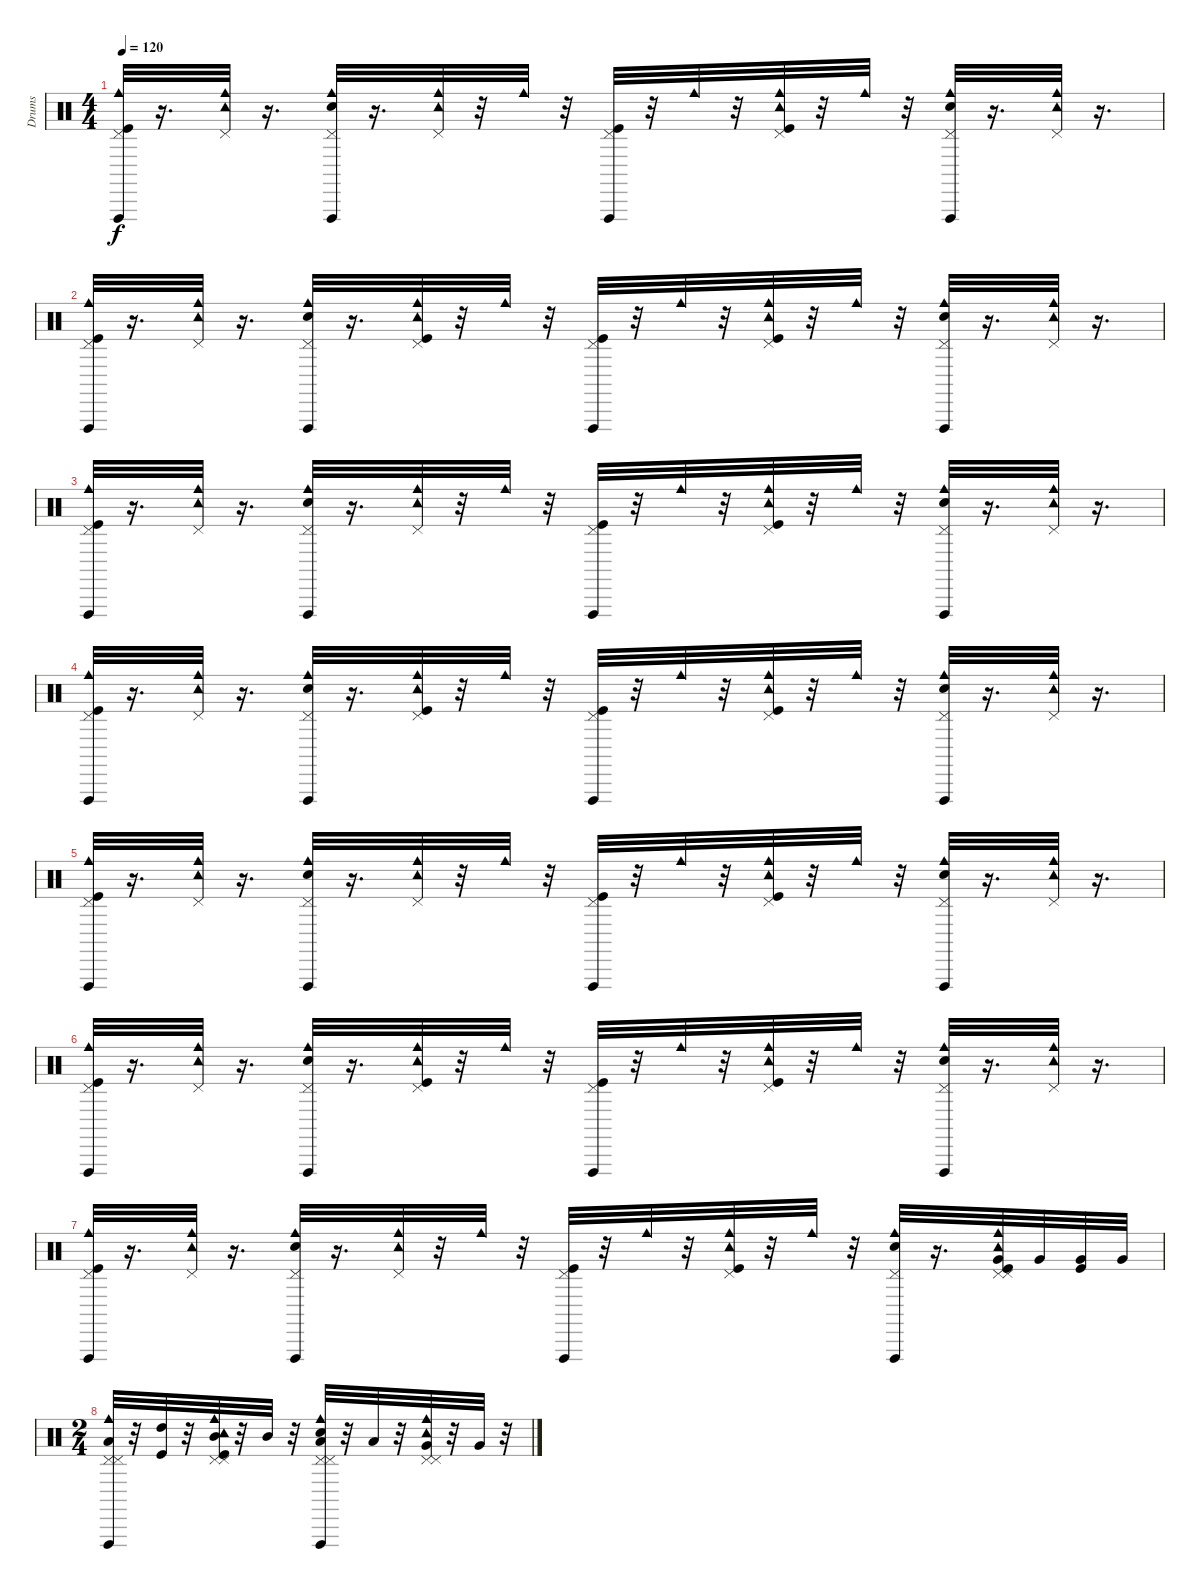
\track ("Drums" "Drums") {instrument percussion}
\staff {score}
\articulation defaults
\ts (4 4)
\tempo 120
\clef neutral
\ks c
("Kick (hit)" "Vibraslap (hit)" "Cowbell medium (hit)" "Pedal Hi-Hat (hit)").32{dy f} r.16{d} ("Tambourine (hit)" "Pedal Hi-Hat (hit)" "Cowbell medium (hit)").32 r.16{d} ("Snare (hit) 2" "Pedal Hi-Hat (hit)" "Vibraslap (hit)" "Cowbell medium (hit)").32 r.16{d} ("Pedal Hi-Hat (hit)" "Tambourine (hit)" "Cowbell medium (hit)").32 r.32 "Cowbell medium (hit)".32 r.32 ("Kick (hit)" "Pedal Hi-Hat (hit)" "Vibraslap (hit)").32 r.32 "Cowbell medium (hit)".32 r.32 ("Kick (hit)" "Cowbell medium (hit)" "Tambourine (hit)" "Pedal Hi-Hat (hit)").32 r.32 "Cowbell medium (hit)".32 r.32 ("Snare (hit) 2" "Vibraslap (hit)" "Cowbell medium (hit)" "Pedal Hi-Hat (hit)").32 r.16{d} ("Pedal Hi-Hat (hit)" "Tambourine (hit)" "Cowbell medium (hit)").32 r.16{d} |
("Kick (hit)" "Pedal Hi-Hat (hit)" "Vibraslap (hit)" "Cowbell medium (hit)").32 r.16{d} ("Cowbell medium (hit)" "Pedal Hi-Hat (hit)" "Tambourine (hit)").32 r.16{d} ("Snare (hit) 2" "Pedal Hi-Hat (hit)" "Cowbell medium (hit)" "Vibraslap (hit)").32 r.16{d} ("Kick (hit)" "Cowbell medium (hit)" "Pedal Hi-Hat (hit)" "Tambourine (hit)").32 r.32 "Cowbell medium (hit)".32 r.32 ("Kick (hit)" "Vibraslap (hit)" "Pedal Hi-Hat (hit)").32 r.32 "Cowbell medium (hit)".32 r.32 ("Kick (hit)" "Pedal Hi-Hat (hit)" "Tambourine (hit)" "Cowbell medium (hit)").32 r.32 "Cowbell medium (hit)".32 r.32 ("Snare (hit) 2" "Pedal Hi-Hat (hit)" "Cowbell medium (hit)" "Vibraslap (hit)").32 r.16{d} ("Pedal Hi-Hat (hit)" "Cowbell medium (hit)" "Tambourine (hit)").32 r.16{d} |
("Kick (hit)" "Vibraslap (hit)" "Cowbell medium (hit)" "Pedal Hi-Hat (hit)").32 r.16{d} ("Tambourine (hit)" "Pedal Hi-Hat (hit)" "Cowbell medium (hit)").32 r.16{d} ("Snare (hit) 2" "Pedal Hi-Hat (hit)" "Vibraslap (hit)" "Cowbell medium (hit)").32 r.16{d} ("Pedal Hi-Hat (hit)" "Tambourine (hit)" "Cowbell medium (hit)").32 r.32 "Cowbell medium (hit)".32 r.32 ("Kick (hit)" "Pedal Hi-Hat (hit)" "Vibraslap (hit)").32 r.32 "Cowbell medium (hit)".32 r.32 ("Kick (hit)" "Cowbell medium (hit)" "Tambourine (hit)" "Pedal Hi-Hat (hit)").32 r.32 "Cowbell medium (hit)".32 r.32 ("Snare (hit) 2" "Vibraslap (hit)" "Cowbell medium (hit)" "Pedal Hi-Hat (hit)").32 r.16{d} ("Pedal Hi-Hat (hit)" "Tambourine (hit)" "Cowbell medium (hit)").32 r.16{d} |
("Kick (hit)" "Pedal Hi-Hat (hit)" "Vibraslap (hit)" "Cowbell medium (hit)").32 r.16{d} ("Cowbell medium (hit)" "Pedal Hi-Hat (hit)" "Tambourine (hit)").32 r.16{d} ("Snare (hit) 2" "Pedal Hi-Hat (hit)" "Cowbell medium (hit)" "Vibraslap (hit)").32 r.16{d} ("Kick (hit)" "Cowbell medium (hit)" "Pedal Hi-Hat (hit)" "Tambourine (hit)").32 r.32 "Cowbell medium (hit)".32 r.32 ("Kick (hit)" "Vibraslap (hit)" "Pedal Hi-Hat (hit)").32 r.32 "Cowbell medium (hit)".32 r.32 ("Kick (hit)" "Pedal Hi-Hat (hit)" "Tambourine (hit)" "Cowbell medium (hit)").32 r.32 "Cowbell medium (hit)".32 r.32 ("Snare (hit) 2" "Pedal Hi-Hat (hit)" "Cowbell medium (hit)" "Vibraslap (hit)").32 r.16{d} ("Pedal Hi-Hat (hit)" "Cowbell medium (hit)" "Tambourine (hit)").32 r.16{d} |
("Kick (hit)" "Vibraslap (hit)" "Cowbell medium (hit)" "Pedal Hi-Hat (hit)").32 r.16{d} ("Tambourine (hit)" "Pedal Hi-Hat (hit)" "Cowbell medium (hit)").32 r.16{d} ("Snare (hit) 2" "Pedal Hi-Hat (hit)" "Vibraslap (hit)" "Cowbell medium (hit)").32 r.16{d} ("Pedal Hi-Hat (hit)" "Tambourine (hit)" "Cowbell medium (hit)").32 r.32 "Cowbell medium (hit)".32 r.32 ("Kick (hit)" "Pedal Hi-Hat (hit)" "Vibraslap (hit)").32 r.32 "Cowbell medium (hit)".32 r.32 ("Kick (hit)" "Cowbell medium (hit)" "Tambourine (hit)" "Pedal Hi-Hat (hit)").32 r.32 "Cowbell medium (hit)".32 r.32 ("Snare (hit) 2" "Vibraslap (hit)" "Cowbell medium (hit)" "Pedal Hi-Hat (hit)").32 r.16{d} ("Pedal Hi-Hat (hit)" "Tambourine (hit)" "Cowbell medium (hit)").32 r.16{d} |
("Kick (hit)" "Pedal Hi-Hat (hit)" "Vibraslap (hit)" "Cowbell medium (hit)").32 r.16{d} ("Cowbell medium (hit)" "Pedal Hi-Hat (hit)" "Tambourine (hit)").32 r.16{d} ("Snare (hit) 2" "Pedal Hi-Hat (hit)" "Cowbell medium (hit)" "Vibraslap (hit)").32 r.16{d} ("Kick (hit)" "Cowbell medium (hit)" "Pedal Hi-Hat (hit)" "Tambourine (hit)").32 r.32 "Cowbell medium (hit)".32 r.32 ("Kick (hit)" "Vibraslap (hit)" "Pedal Hi-Hat (hit)").32 r.32 "Cowbell medium (hit)".32 r.32 ("Kick (hit)" "Pedal Hi-Hat (hit)" "Tambourine (hit)" "Cowbell medium (hit)").32 r.32 "Cowbell medium (hit)".32 r.32 ("Snare (hit) 2" "Pedal Hi-Hat (hit)" "Cowbell medium (hit)" "Vibraslap (hit)").32 r.16{d} ("Pedal Hi-Hat (hit)" "Cowbell medium (hit)" "Tambourine (hit)").32 r.16{d} |
("Kick (hit)" "Vibraslap (hit)" "Cowbell medium (hit)" "Pedal Hi-Hat (hit)").32 r.16{d} ("Tambourine (hit)" "Pedal Hi-Hat (hit)" "Cowbell medium (hit)").32 r.16{d} ("Snare (hit) 2" "Pedal Hi-Hat (hit)" "Vibraslap (hit)" "Cowbell medium (hit)").32 r.16{d} ("Pedal Hi-Hat (hit)" "Tambourine (hit)" "Cowbell medium (hit)").32 r.32 "Cowbell medium (hit)".32 r.32 ("Kick (hit)" "Pedal Hi-Hat (hit)" "Vibraslap (hit)").32 r.32 "Cowbell medium (hit)".32 r.32 ("Kick (hit)" "Cowbell medium (hit)" "Tambourine (hit)" "Pedal Hi-Hat (hit)").32 r.32 "Cowbell medium (hit)".32 r.32 ("Snare (hit) 2" "Vibraslap (hit)" "Cowbell medium (hit)" "Pedal Hi-Hat (hit)").32 r.16{d} ("Pedal Hi-Hat (hit)" "Tambourine (hit)" "Cowbell medium (hit)" "Kick (hit)" "Pedal Hi-Hat (hit)" "Very Low Tom (hit)").32 "Very Low Tom (hit)".32 ("Kick (hit)" "Very Low Tom (hit)").32 "Very Low Tom (hit)".32 |
\ts (2 4)
("Low Tom (hit)" "Pedal Hi-Hat (hit)" "Vibraslap (hit)" "Cowbell medium (hit)" "Pedal Hi-Hat (hit)").32 r.32 ("High Tom (hit)" "Kick (hit)").32 r.32 ("Pedal Hi-Hat (hit)" "Mid Tom (hit)" "Kick (hit)" "Tambourine (hit)" "Pedal Hi-Hat (hit)" "Cowbell medium (hit)").32 r.32 "Mid Tom (hit)".32 r.32 ("Low Tom (hit)" "Pedal Hi-Hat (hit)" "Snare (hit) 2" "Pedal Hi-Hat (hit)" "Vibraslap (hit)" "Cowbell medium (hit)").32 r.32 "Low Tom (hit)".32 r.32 ("Very Low Tom (hit)" "Pedal Hi-Hat (hit)" "Pedal Hi-Hat (hit)" "Tambourine (hit)" "Cowbell medium (hit)").32 r.32 "Very Low Tom (hit)".32 r.32
